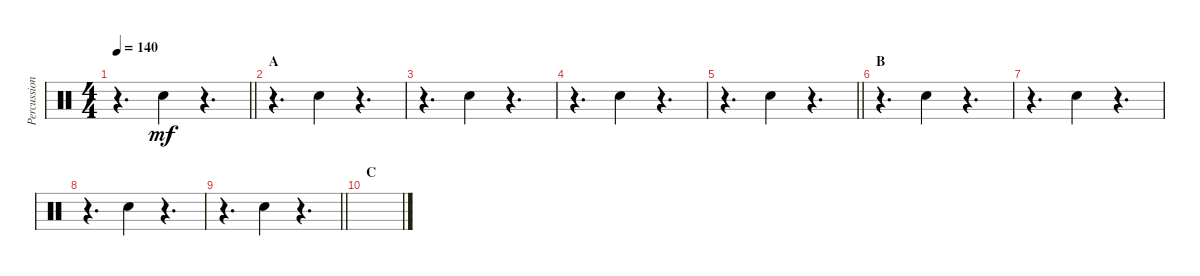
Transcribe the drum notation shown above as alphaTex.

\track ("Percussion" "Percussion") {instrument percussion}
\staff {score}
\articulation defaults
\ts (4 4)
\tempo 140
\clef neutral
\barLineRight lightlight
\ks c
r.4{d dy mf} "Hand Clap (hit)".4 r.4{d} |
\section ("" "A")
r.4{d} "Hand Clap (hit)".4 r.4{d} |
r.4{d} "Hand Clap (hit)".4 r.4{d} |
r.4{d} "Hand Clap (hit)".4 r.4{d} |
\barLineRight lightlight
r.4{d} "Hand Clap (hit)".4 r.4{d} |
\section ("" "B")
r.4{d} "Hand Clap (hit)".4 r.4{d} |
r.4{d} "Hand Clap (hit)".4 r.4{d} |
r.4{d} "Hand Clap (hit)".4 r.4{d} |
\barLineRight lightlight
r.4{d} "Hand Clap (hit)".4 r.4{d} |
\section ("" "C")
